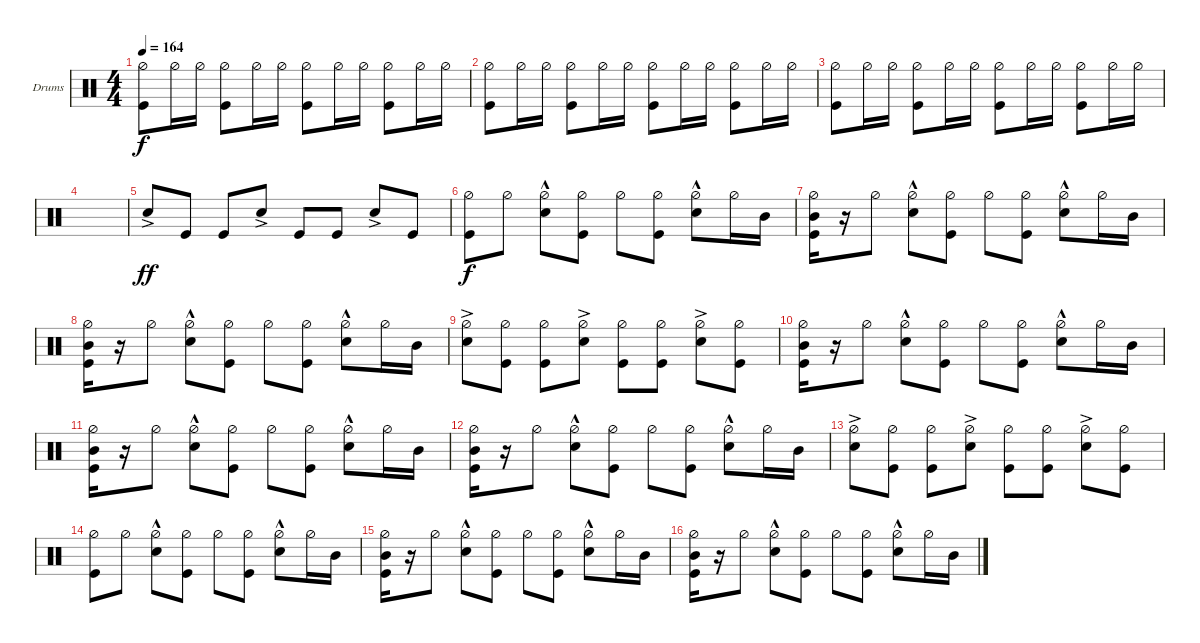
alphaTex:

\defaultSystemsLayout 4
\bracketExtendMode groupsimilarinstruments
\firstSystemTrackNameOrientation horizontal
\otherSystemsTrackNameOrientation horizontal
\track ("Drumkit" "Drums") {instrument percussion}
\staff {score}
\articulation defaults
\ts (4 4)
\tempo 164
\clef neutral
\ks c
("Hi-Hat (half)" "Kick (hit)").8{dy f} "Hi-Hat (half)".16 "Hi-Hat (half)".16 ("Hi-Hat (half)" "Kick (hit)").8 "Hi-Hat (half)".16 "Hi-Hat (half)".16 ("Hi-Hat (half)" "Kick (hit)").8 "Hi-Hat (half)".16 "Hi-Hat (half)".16 ("Hi-Hat (half)" "Kick (hit)").8 "Hi-Hat (half)".16 "Hi-Hat (half)".16 |
("Hi-Hat (half)" "Kick (hit)").8 "Hi-Hat (half)".16 "Hi-Hat (half)".16 ("Hi-Hat (half)" "Kick (hit)").8 "Hi-Hat (half)".16 "Hi-Hat (half)".16 ("Hi-Hat (half)" "Kick (hit)").8 "Hi-Hat (half)".16 "Hi-Hat (half)".16 ("Hi-Hat (half)" "Kick (hit)").8 "Hi-Hat (half)".16 "Hi-Hat (half)".16 |
("Hi-Hat (half)" "Kick (hit)").8 "Hi-Hat (half)".16 "Hi-Hat (half)".16 ("Hi-Hat (half)" "Kick (hit)").8 "Hi-Hat (half)".16 "Hi-Hat (half)".16 ("Hi-Hat (half)" "Kick (hit)").8 "Hi-Hat (half)".16 "Hi-Hat (half)".16 ("Hi-Hat (half)" "Kick (hit)").8 "Hi-Hat (half)".16 "Hi-Hat (half)".16 |
|
"Snare (hit) 2"{ac}.8{dy ff} "Kick (hit)".8 "Kick (hit)".8 "Snare (hit) 2"{ac}.8 "Kick (hit)".8 "Kick (hit)".8 "Snare (hit) 2"{ac}.8 "Kick (hit)".8 |
("Kick (hit)" "Hi-Hat (half)").8{dy f} "Hi-Hat (half)".8 ("Snare (hit) 2"{hac} "Hi-Hat (half)").8 ("Kick (hit)" "Hi-Hat (half)").8 "Hi-Hat (half)".8 ("Kick (hit)" "Hi-Hat (half)").8 ("Snare (hit) 2"{hac} "Hi-Hat (half)").8 "Hi-Hat (half)".16 "Mid Tom (hit)".16 |
("Mid Tom (hit)" "Hi-Hat (half)" "Kick (hit)").16 r.16 "Hi-Hat (half)".8 ("Snare (hit) 2"{hac} "Hi-Hat (half)").8 ("Kick (hit)" "Hi-Hat (half)").8 "Hi-Hat (half)".8 ("Kick (hit)" "Hi-Hat (half)").8 ("Snare (hit) 2"{hac} "Hi-Hat (half)").8 "Hi-Hat (half)".16 "Mid Tom (hit)".16 |
("Mid Tom (hit)" "Hi-Hat (half)" "Kick (hit)").16 r.16 "Hi-Hat (half)".8 ("Snare (hit) 2"{hac} "Hi-Hat (half)").8 ("Kick (hit)" "Hi-Hat (half)").8 "Hi-Hat (half)".8 ("Kick (hit)" "Hi-Hat (half)").8 ("Snare (hit) 2"{hac} "Hi-Hat (half)").8 "Hi-Hat (half)".16 "Mid Tom (hit)".16 |
("Snare (hit) 2"{ac} "Hi-Hat (half)").8 ("Kick (hit)" "Hi-Hat (half)").8 ("Kick (hit)" "Hi-Hat (half)").8 ("Snare (hit) 2"{ac} "Hi-Hat (half)").8 ("Kick (hit)" "Hi-Hat (half)").8 ("Kick (hit)" "Hi-Hat (half)").8 ("Snare (hit) 2"{ac} "Hi-Hat (half)").8 ("Kick (hit)" "Hi-Hat (half)").8 |
("Mid Tom (hit)" "Hi-Hat (half)" "Kick (hit)").16 r.16 "Hi-Hat (half)".8 ("Snare (hit) 2"{hac} "Hi-Hat (half)").8 ("Kick (hit)" "Hi-Hat (half)").8 "Hi-Hat (half)".8 ("Kick (hit)" "Hi-Hat (half)").8 ("Snare (hit) 2"{hac} "Hi-Hat (half)").8 "Hi-Hat (half)".16 "Mid Tom (hit)".16 |
("Mid Tom (hit)" "Hi-Hat (half)" "Kick (hit)").16 r.16 "Hi-Hat (half)".8 ("Snare (hit) 2"{hac} "Hi-Hat (half)").8 ("Kick (hit)" "Hi-Hat (half)").8 "Hi-Hat (half)".8 ("Kick (hit)" "Hi-Hat (half)").8 ("Snare (hit) 2"{hac} "Hi-Hat (half)").8 "Hi-Hat (half)".16 "Mid Tom (hit)".16 |
("Mid Tom (hit)" "Hi-Hat (half)" "Kick (hit)").16 r.16 "Hi-Hat (half)".8 ("Snare (hit) 2"{hac} "Hi-Hat (half)").8 ("Kick (hit)" "Hi-Hat (half)").8 "Hi-Hat (half)".8 ("Kick (hit)" "Hi-Hat (half)").8 ("Snare (hit) 2"{hac} "Hi-Hat (half)").8 "Hi-Hat (half)".16 "Mid Tom (hit)".16 |
("Snare (hit) 2"{ac} "Hi-Hat (half)").8 ("Kick (hit)" "Hi-Hat (half)").8 ("Kick (hit)" "Hi-Hat (half)").8 ("Snare (hit) 2"{ac} "Hi-Hat (half)").8 ("Kick (hit)" "Hi-Hat (half)").8 ("Kick (hit)" "Hi-Hat (half)").8 ("Snare (hit) 2"{ac} "Hi-Hat (half)").8 ("Kick (hit)" "Hi-Hat (half)").8 |
("Kick (hit)" "Hi-Hat (half)").8 "Hi-Hat (half)".8 ("Snare (hit) 2"{hac} "Hi-Hat (half)").8 ("Kick (hit)" "Hi-Hat (half)").8 "Hi-Hat (half)".8 ("Kick (hit)" "Hi-Hat (half)").8 ("Snare (hit) 2"{hac} "Hi-Hat (half)").8 "Hi-Hat (half)".16 "Mid Tom (hit)".16 |
("Mid Tom (hit)" "Hi-Hat (half)" "Kick (hit)").16 r.16 "Hi-Hat (half)".8 ("Snare (hit) 2"{hac} "Hi-Hat (half)").8 ("Kick (hit)" "Hi-Hat (half)").8 "Hi-Hat (half)".8 ("Kick (hit)" "Hi-Hat (half)").8 ("Snare (hit) 2"{hac} "Hi-Hat (half)").8 "Hi-Hat (half)".16 "Mid Tom (hit)".16 |
("Mid Tom (hit)" "Hi-Hat (half)" "Kick (hit)").16 r.16 "Hi-Hat (half)".8 ("Snare (hit) 2"{hac} "Hi-Hat (half)").8 ("Kick (hit)" "Hi-Hat (half)").8 "Hi-Hat (half)".8 ("Kick (hit)" "Hi-Hat (half)").8 ("Snare (hit) 2"{hac} "Hi-Hat (half)").8 "Hi-Hat (half)".16 "Mid Tom (hit)".16
